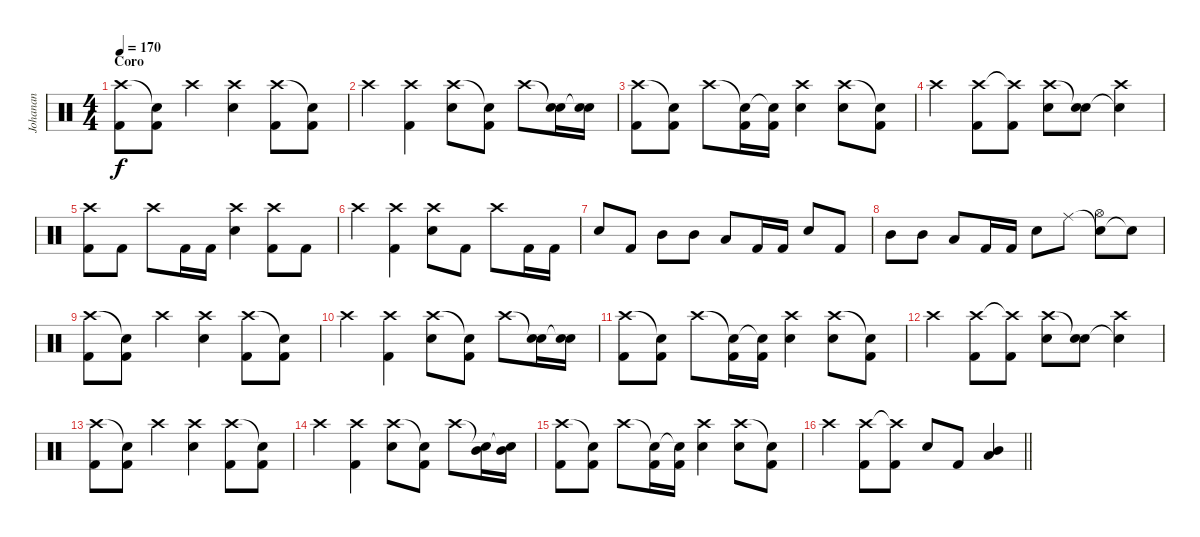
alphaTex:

\track ("Johanan" "Johanan") {instrument percussion}
\staff {score}
\articulation defaults
\ts (4 4)
\section ("" "Coro")
\tempo 170
\clef neutral
\ks c
("Crash high (hit)" "Kick (hit) 2").8{dy f} ("Snare (hit)"{t} "Kick (hit) 2").8 "Crash high (hit)".4 ("Crash high (hit)" "Electric Snare (hit)").4 ("Crash high (hit)" "Kick (hit) 2").8 ("Snare (hit)"{t} "Kick (hit) 2").8 |
"Crash high (hit)".4 ("Crash high (hit)" "Kick (hit) 2").4 ("Crash high (hit)" "Electric Snare (hit)").8 ("Snare (hit)"{t} "Kick (hit) 2").8 "Crash high (hit)".8 ("Snare (hit)"{t} "Electric Snare (hit)").16 ("Snare (hit)"{t} "Electric Snare (hit)").16 |
("Crash high (hit)" "Kick (hit) 2").8 ("Snare (hit)"{t} "Kick (hit) 2").8 "Crash high (hit)".8 ("Snare (hit)"{t} "Kick (hit) 2").16 ("Snare (hit)"{t} "Kick (hit) 2").16 ("Crash high (hit)" "Electric Snare (hit)").4 ("Crash high (hit)" "Electric Snare (hit)").8 ("Snare (hit)"{t} "Kick (hit) 2").8 |
"Crash high (hit)".4 ("Crash high (hit)" "Kick (hit) 2").8 ("Crash high (hit)"{t} "Kick (hit) 2").8 ("Crash high (hit)" "Electric Snare (hit)").8 ("Snare (hit)"{t} "Electric Snare (hit)").8 ("Crash high (hit)" "Snare (hit)"{t}).4 |
("Crash high (hit)" "Kick (hit) 2").8 "Kick (hit) 2".8 "Crash high (hit)".8 "Kick (hit) 2".16 "Kick (hit) 2".16 ("Crash high (hit)" "Electric Snare (hit)").4 ("Crash high (hit)" "Kick (hit) 2").8 "Kick (hit) 2".8 |
"Crash high (hit)".4 ("Crash high (hit)" "Kick (hit) 2").4 ("Crash high (hit)" "Electric Snare (hit)").8 "Kick (hit) 2".8 "Crash high (hit)".8 "Kick (hit) 2".16 "Kick (hit) 2".16 |
"Electric Snare (hit)".8 "Kick (hit) 2".8 "Mid Tom (hit)".8 "Mid Tom (hit)".8 "Low Tom (hit)".8 "Kick (hit) 2".16 "Kick (hit) 2".16 "Electric Snare (hit)".8 "Kick (hit) 2".8 |
"Mid Tom (hit)".8 "Mid Tom (hit)".8 "Low Tom (hit)".8 "Kick (hit) 2".16 "Kick (hit) 2".16 "Electric Snare (hit)".8 "Ride (middle)".8 ("Snare (hit)"{t} "Hi-Hat (open)").8 "Snare (hit)"{t}.8 |
("Crash high (hit)" "Kick (hit) 2").8 ("Snare (hit)"{t} "Kick (hit) 2").8 "Crash high (hit)".4 ("Crash high (hit)" "Electric Snare (hit)").4 ("Crash high (hit)" "Kick (hit) 2").8 ("Snare (hit)"{t} "Kick (hit) 2").8 |
"Crash high (hit)".4 ("Crash high (hit)" "Kick (hit) 2").4 ("Crash high (hit)" "Electric Snare (hit)").8 ("Snare (hit)"{t} "Kick (hit) 2").8 "Crash high (hit)".8 ("Snare (hit)"{t} "Electric Snare (hit)").16 ("Snare (hit)"{t} "Electric Snare (hit)").16 |
("Crash high (hit)" "Kick (hit) 2").8 ("Snare (hit)"{t} "Kick (hit) 2").8 "Crash high (hit)".8 ("Snare (hit)"{t} "Kick (hit) 2").16 ("Snare (hit)"{t} "Kick (hit) 2").16 ("Crash high (hit)" "Electric Snare (hit)").4 ("Crash high (hit)" "Electric Snare (hit)").8 ("Snare (hit)"{t} "Kick (hit) 2").8 |
"Crash high (hit)".4 ("Crash high (hit)" "Kick (hit) 2").8 ("Crash high (hit)"{t} "Kick (hit) 2").8 ("Crash high (hit)" "Electric Snare (hit)").8 ("Snare (hit)"{t} "Electric Snare (hit)").8 ("Crash high (hit)" "Snare (hit)"{t}).4 |
("Crash high (hit)" "Kick (hit) 2").8 ("Snare (hit)"{t} "Kick (hit) 2").8 "Crash high (hit)".4 ("Crash high (hit)" "Electric Snare (hit)").4 ("Crash high (hit)" "Kick (hit) 2").8 ("Snare (hit)"{t} "Kick (hit) 2").8 |
"Crash high (hit)".4 ("Crash high (hit)" "Kick (hit) 2").4 ("Crash high (hit)" "Electric Snare (hit)").8 ("Snare (hit)"{t} "Kick (hit) 2").8 "Crash high (hit)".8 ("Snare (hit)"{t} "Mid Tom (hit)").16 ("Snare (hit)"{t} "Mid Tom (hit)").16 |
("Crash high (hit)" "Kick (hit) 2").8 ("Snare (hit)"{t} "Kick (hit) 2").8 "Crash high (hit)".8 ("Snare (hit)"{t} "Kick (hit) 2").16 ("Snare (hit)"{t} "Kick (hit) 2").16 ("Crash high (hit)" "Electric Snare (hit)").4 ("Crash high (hit)" "Electric Snare (hit)").8 ("Snare (hit)"{t} "Kick (hit) 2").8 |
\barLineRight lightlight "Crash high (hit)".4
("Crash high (hit)" "Kick (hit) 2").8 ("Crash high (hit)"{t} "Kick (hit) 2").8 "Electric Snare (hit)".8 "Kick (hit) 2".8 ("Mid Tom (hit)" "Low Tom (hit)").4
